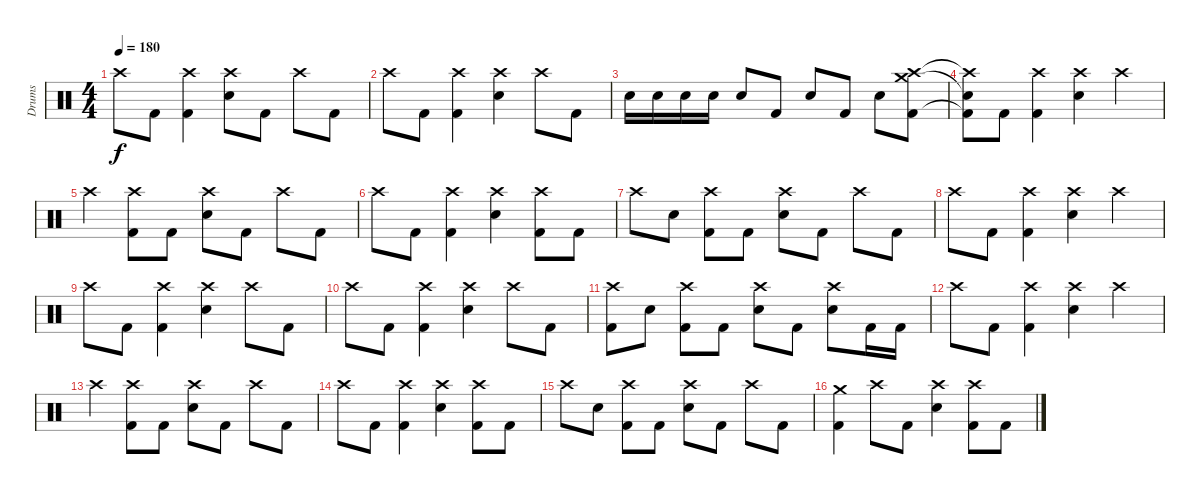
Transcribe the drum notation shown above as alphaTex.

\track ("Drums" "Drums") {instrument percussion}
\staff {score}
\articulation defaults
\ts (4 4)
\tempo 180
\clef neutral
\ks c "Crash high (hit)".8{dy f} "Kick (hit) 2".8
("Crash high (hit)" "Kick (hit) 2").4 ("Crash high (hit)" "Electric Snare (hit)").8 "Kick (hit) 2".8 "Crash high (hit)".8 "Kick (hit) 2".8 |
"Crash high (hit)".8 "Kick (hit) 2".8 ("Crash high (hit)" "Kick (hit) 2").4 ("Crash high (hit)" "Electric Snare (hit)").4 "Crash high (hit)".8 "Kick (hit) 2".8 |
"Electric Snare (hit)".16 "Electric Snare (hit)".16 "Electric Snare (hit)".16 "Electric Snare (hit)".16 "Electric Snare (hit)".8 "Kick (hit) 2".8 "Electric Snare (hit)".8 "Kick (hit) 2".8 "Electric Snare (hit)".8 ("Crash high (hit)" "Crash medium (hit)" "Kick (hit) 2").8 |
("Crash high (hit)"{t} "Snare (hit)"{t} "Kick (hit) 2"{t}).8 "Kick (hit) 2".8 ("Crash high (hit)" "Kick (hit) 2").4 ("Crash high (hit)" "Electric Snare (hit)").4 "Crash high (hit)".4 |
"Crash high (hit)".4 ("Crash high (hit)" "Kick (hit) 2").8 "Kick (hit) 2".8 ("Crash high (hit)" "Electric Snare (hit)").8 "Kick (hit) 2".8 "Crash high (hit)".8 "Kick (hit) 2".8 |
"Crash high (hit)".8 "Kick (hit) 2".8 ("Crash high (hit)" "Kick (hit) 2").4 ("Crash high (hit)" "Electric Snare (hit)").4 ("Crash high (hit)" "Kick (hit) 2").8 "Kick (hit) 2".8 |
"Crash high (hit)".8 "Electric Snare (hit)".8 ("Crash high (hit)" "Kick (hit) 2").8 "Kick (hit) 2".8 ("Crash high (hit)" "Electric Snare (hit)").8 "Kick (hit) 2".8 "Crash high (hit)".8 "Kick (hit) 2".8 |
"Crash high (hit)".8 "Kick (hit) 2".8 ("Crash high (hit)" "Kick (hit) 2").4 ("Crash high (hit)" "Electric Snare (hit)").4 "Crash high (hit)".4 |
"Crash high (hit)".8 "Kick (hit) 2".8 ("Crash high (hit)" "Kick (hit) 2").4 ("Crash high (hit)" "Electric Snare (hit)").4 "Crash high (hit)".8 "Kick (hit) 2".8 |
"Crash high (hit)".8 "Kick (hit) 2".8 ("Crash high (hit)" "Kick (hit) 2").4 ("Crash high (hit)" "Electric Snare (hit)").4 "Crash high (hit)".8 "Kick (hit) 2".8 |
("Crash high (hit)" "Kick (hit) 2").8 "Electric Snare (hit)".8 ("Crash high (hit)" "Kick (hit) 2").8 "Kick (hit) 2".8 ("Crash high (hit)" "Electric Snare (hit)").8 "Kick (hit) 2".8 ("Crash high (hit)" "Electric Snare (hit)").8 "Kick (hit) 2".16 "Kick (hit) 2".16 |
"Crash high (hit)".8 "Kick (hit) 2".8 ("Crash high (hit)" "Kick (hit) 2").4 ("Crash high (hit)" "Electric Snare (hit)").4 "Crash high (hit)".4 |
"Crash high (hit)".4 ("Crash high (hit)" "Kick (hit) 2").8 "Kick (hit) 2".8 ("Crash high (hit)" "Electric Snare (hit)").8 "Kick (hit) 2".8 "Crash high (hit)".8 "Kick (hit) 2".8 |
"Crash high (hit)".8 "Kick (hit) 2".8 ("Crash high (hit)" "Kick (hit) 2").4 ("Crash high (hit)" "Electric Snare (hit)").4 ("Crash high (hit)" "Kick (hit) 2").8 "Kick (hit) 2".8 |
"Crash high (hit)".8 "Electric Snare (hit)".8 ("Crash high (hit)" "Kick (hit) 2").8 "Kick (hit) 2".8 ("Crash high (hit)" "Electric Snare (hit)").8 "Kick (hit) 2".8 "Crash high (hit)".8 "Kick (hit) 2".8 |
("Crash medium (hit)" "Kick (hit) 2").4 "Crash high (hit)".8 "Kick (hit) 2".8 ("Crash high (hit)" "Electric Snare (hit)").4 ("Crash high (hit)" "Kick (hit) 2").8 "Kick (hit) 2".8
